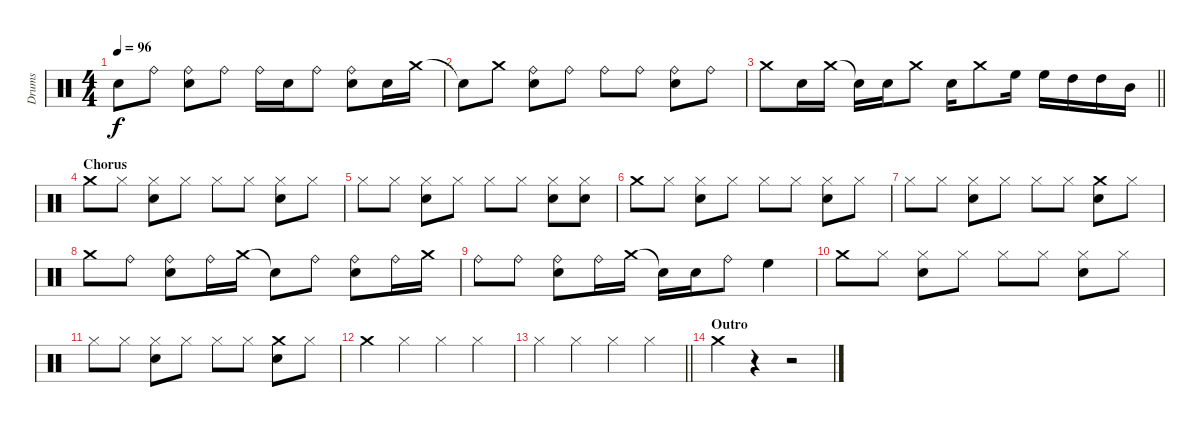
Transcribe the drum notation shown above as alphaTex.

\track ("Drums" "Drums") {instrument percussion}
\staff {score}
\articulation defaults
\ts (4 4)
\tempo 96
\clef neutral
\ks c "Snare (hit)"{t}.8{dy f} "Ride (bell)".8
("Ride (bell)" "Electric Snare (hit)").8 "Ride (bell)".8 "Ride (bell)".16 "Electric Snare (hit)".16 "Ride (bell)".8 ("Ride (bell)" "Electric Snare (hit)").8 "Electric Snare (hit)".16 "Crash medium (hit)".16 |
"Snare (hit)"{t}.8 "Crash medium (hit)".8 ("Ride (bell)" "Electric Snare (hit)").8 "Ride (bell)".8 "Ride (bell)".8 "Ride (bell)".8 ("Ride (bell)" "Electric Snare (hit)").8 "Ride (bell)".8 |
\barLineRight lightlight "Crash medium (hit)".8 "Electric Snare (hit)".16 "Crash medium (hit)".16 "Snare (hit)"{t}.16 "Electric Snare (hit)".16 "Crash medium (hit)".8 "Electric Snare (hit)".16 "Crash medium (hit)".8 "High Floor Tom (hit)".16 "High Floor Tom (hit)".16 "High Tom (hit)".16 "High Tom (hit)".16 "Mid Tom (hit)".16
|
\section ("" "Chorus")
"Crash medium (hit)".8 "Hi-Hat (closed)".8 ("Hi-Hat (closed)" "Electric Snare (hit)").8 "Hi-Hat (closed)".8 "Hi-Hat (closed)".8 "Hi-Hat (closed)".8 ("Hi-Hat (closed)" "Electric Snare (hit)").8 "Hi-Hat (closed)".8 |
"Hi-Hat (closed)".8 "Hi-Hat (closed)".8 ("Hi-Hat (closed)" "Electric Snare (hit)").8 "Hi-Hat (closed)".8 "Hi-Hat (closed)".8 "Hi-Hat (closed)".8 ("Hi-Hat (closed)" "Electric Snare (hit)").8 ("Hi-Hat (closed)" "Electric Snare (hit)").8 |
"Crash medium (hit)".8 "Hi-Hat (closed)".8 ("Hi-Hat (closed)" "Electric Snare (hit)").8 "Hi-Hat (closed)".8 "Hi-Hat (closed)".8 "Hi-Hat (closed)".8 ("Hi-Hat (closed)" "Electric Snare (hit)").8 "Hi-Hat (closed)".8 |
"Hi-Hat (closed)".8 "Hi-Hat (closed)".8 ("Hi-Hat (closed)" "Electric Snare (hit)").8 "Hi-Hat (closed)".8 "Hi-Hat (closed)".8 "Hi-Hat (closed)".8 ("Crash medium (hit)" "Electric Snare (hit)").8 "Hi-Hat (closed)".8 |
"Crash medium (hit)".8 "Ride (bell)".8 ("Ride (bell)" "Electric Snare (hit)").8 "Ride (bell)".16 "Crash medium (hit)".16 "Snare (hit)"{t}.8 "Ride (bell)".8 ("Ride (bell)" "Electric Snare (hit)").8 "Ride (bell)".16 "Crash medium (hit)".16 |
"Ride (bell)".8 "Ride (bell)".8 ("Ride (bell)" "Electric Snare (hit)").8 "Ride (bell)".16 "Crash medium (hit)".16 "Snare (hit)"{t}.16 "Electric Snare (hit)".16 "Ride (bell)".8 "High Floor Tom (hit)".4 |
"Crash medium (hit)".8 "Hi-Hat (closed)".8 ("Hi-Hat (closed)" "Electric Snare (hit)").8 "Hi-Hat (closed)".8 "Hi-Hat (closed)".8 "Hi-Hat (closed)".8 ("Hi-Hat (closed)" "Electric Snare (hit)").8 "Hi-Hat (closed)".8 |
"Hi-Hat (closed)".8 "Hi-Hat (closed)".8 ("Hi-Hat (closed)" "Electric Snare (hit)").8 "Hi-Hat (closed)".8 "Hi-Hat (closed)".8 "Hi-Hat (closed)".8 ("Crash medium (hit)" "Electric Snare (hit)").8 "Hi-Hat (closed)".8 |
"Crash medium (hit)".4 "Hi-Hat (closed)".4 "Hi-Hat (closed)".4 "Hi-Hat (closed)".4 |
\barLineRight lightlight "Hi-Hat (closed)".4 "Hi-Hat (closed)".4 "Hi-Hat (closed)".4 "Hi-Hat (closed)".4
|
\section ("" "Outro")
"Crash medium (hit)".4 r.4 r.2
